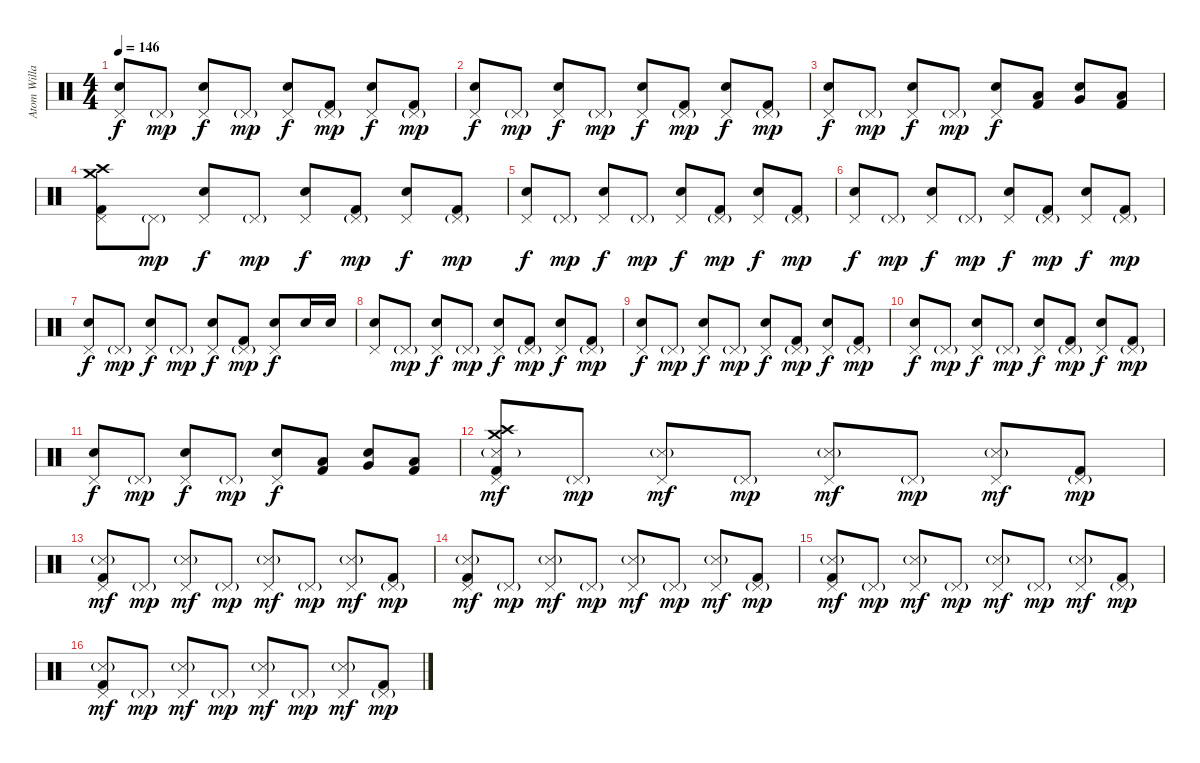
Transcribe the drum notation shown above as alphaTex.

\track ("Atom Willard" "Atom Willa") {instrument percussion}
\staff {score}
\articulation defaults
\ts (4 4)
\tempo 146
\clef neutral
\ks c
("Pedal Hi-Hat (hit)" "Electric Snare (hit)").8{dy f} "Pedal Hi-Hat (hit)"{g}.8{dy mp} ("Pedal Hi-Hat (hit)" "Electric Snare (hit)").8{dy f} "Pedal Hi-Hat (hit)"{g}.8{dy mp} ("Pedal Hi-Hat (hit)" "Electric Snare (hit)").8{dy f} ("Pedal Hi-Hat (hit)"{g} "Kick (hit) 2").8{dy mp} ("Pedal Hi-Hat (hit)" "Electric Snare (hit)").8{dy f} ("Pedal Hi-Hat (hit)"{g} "Kick (hit) 2").8{dy mp} |
("Pedal Hi-Hat (hit)" "Electric Snare (hit)").8{dy f} "Pedal Hi-Hat (hit)"{g}.8{dy mp} ("Pedal Hi-Hat (hit)" "Electric Snare (hit)").8{dy f} "Pedal Hi-Hat (hit)"{g}.8{dy mp} ("Pedal Hi-Hat (hit)" "Electric Snare (hit)").8{dy f} ("Pedal Hi-Hat (hit)"{g} "Kick (hit) 2").8{dy mp} ("Pedal Hi-Hat (hit)" "Electric Snare (hit)").8{dy f} ("Pedal Hi-Hat (hit)"{g} "Kick (hit) 2").8{dy mp} |
("Pedal Hi-Hat (hit)" "Electric Snare (hit)").8{dy f} "Pedal Hi-Hat (hit)"{g}.8{dy mp} ("Pedal Hi-Hat (hit)" "Electric Snare (hit)").8{dy f} "Pedal Hi-Hat (hit)"{g}.8{dy mp} ("Pedal Hi-Hat (hit)" "Electric Snare (hit)").8{dy f} ("Low Tom (hit)" "Kick (hit) 2").8 ("Electric Snare (hit)" "Very Low Tom (hit)").8 ("Low Tom (hit)" "Kick (hit) 2").8 |
("Crash high (hit)" "Crash medium (hit)" "Pedal Hi-Hat (hit)" "Kick (hit) 2").8 "Pedal Hi-Hat (hit)"{g}.8{dy mp} ("Pedal Hi-Hat (hit)" "Electric Snare (hit)").8{dy f} "Pedal Hi-Hat (hit)"{g}.8{dy mp} ("Pedal Hi-Hat (hit)" "Electric Snare (hit)").8{dy f} ("Pedal Hi-Hat (hit)"{g} "Kick (hit) 2").8{dy mp} ("Pedal Hi-Hat (hit)" "Electric Snare (hit)").8{dy f} ("Pedal Hi-Hat (hit)"{g} "Kick (hit) 2").8{dy mp} |
("Pedal Hi-Hat (hit)" "Electric Snare (hit)").8{dy f} "Pedal Hi-Hat (hit)"{g}.8{dy mp} ("Pedal Hi-Hat (hit)" "Electric Snare (hit)").8{dy f} "Pedal Hi-Hat (hit)"{g}.8{dy mp} ("Pedal Hi-Hat (hit)" "Electric Snare (hit)").8{dy f} ("Pedal Hi-Hat (hit)"{g} "Kick (hit) 2").8{dy mp} ("Pedal Hi-Hat (hit)" "Electric Snare (hit)").8{dy f} ("Pedal Hi-Hat (hit)"{g} "Kick (hit) 2").8{dy mp} |
("Pedal Hi-Hat (hit)" "Electric Snare (hit)").8{dy f} "Pedal Hi-Hat (hit)"{g}.8{dy mp} ("Pedal Hi-Hat (hit)" "Electric Snare (hit)").8{dy f} "Pedal Hi-Hat (hit)"{g}.8{dy mp} ("Pedal Hi-Hat (hit)" "Electric Snare (hit)").8{dy f} ("Pedal Hi-Hat (hit)"{g} "Kick (hit) 2").8{dy mp} ("Pedal Hi-Hat (hit)" "Electric Snare (hit)").8{dy f} ("Pedal Hi-Hat (hit)"{g} "Kick (hit) 2").8{dy mp} |
("Pedal Hi-Hat (hit)" "Electric Snare (hit)").8{dy f} "Pedal Hi-Hat (hit)"{g}.8{dy mp} ("Pedal Hi-Hat (hit)" "Electric Snare (hit)").8{dy f} "Pedal Hi-Hat (hit)"{g}.8{dy mp} ("Pedal Hi-Hat (hit)" "Electric Snare (hit)").8{dy f} ("Pedal Hi-Hat (hit)"{g} "Kick (hit) 2").8{dy mp} ("Pedal Hi-Hat (hit)" "Electric Snare (hit)").8{dy f} "Electric Snare (hit)".16 "Electric Snare (hit)".16 |
("Pedal Hi-Hat (hit)" "Electric Snare (hit)").8 "Pedal Hi-Hat (hit)"{g}.8{dy mp} ("Pedal Hi-Hat (hit)" "Electric Snare (hit)").8{dy f} "Pedal Hi-Hat (hit)"{g}.8{dy mp} ("Pedal Hi-Hat (hit)" "Electric Snare (hit)").8{dy f} ("Pedal Hi-Hat (hit)"{g} "Kick (hit) 2").8{dy mp} ("Pedal Hi-Hat (hit)" "Electric Snare (hit)").8{dy f} ("Pedal Hi-Hat (hit)"{g} "Kick (hit) 2").8{dy mp} |
("Pedal Hi-Hat (hit)" "Electric Snare (hit)").8{dy f} "Pedal Hi-Hat (hit)"{g}.8{dy mp} ("Pedal Hi-Hat (hit)" "Electric Snare (hit)").8{dy f} "Pedal Hi-Hat (hit)"{g}.8{dy mp} ("Pedal Hi-Hat (hit)" "Electric Snare (hit)").8{dy f} ("Pedal Hi-Hat (hit)"{g} "Kick (hit) 2").8{dy mp} ("Pedal Hi-Hat (hit)" "Electric Snare (hit)").8{dy f} ("Pedal Hi-Hat (hit)"{g} "Kick (hit) 2").8{dy mp} |
("Pedal Hi-Hat (hit)" "Electric Snare (hit)").8{dy f} "Pedal Hi-Hat (hit)"{g}.8{dy mp} ("Pedal Hi-Hat (hit)" "Electric Snare (hit)").8{dy f} "Pedal Hi-Hat (hit)"{g}.8{dy mp} ("Pedal Hi-Hat (hit)" "Electric Snare (hit)").8{dy f} ("Pedal Hi-Hat (hit)"{g} "Kick (hit) 2").8{dy mp} ("Pedal Hi-Hat (hit)" "Electric Snare (hit)").8{dy f} ("Pedal Hi-Hat (hit)"{g} "Kick (hit) 2").8{dy mp} |
("Pedal Hi-Hat (hit)" "Electric Snare (hit)").8{dy f} "Pedal Hi-Hat (hit)"{g}.8{dy mp} ("Pedal Hi-Hat (hit)" "Electric Snare (hit)").8{dy f} "Pedal Hi-Hat (hit)"{g}.8{dy mp} ("Pedal Hi-Hat (hit)" "Electric Snare (hit)").8{dy f} ("Low Tom (hit)" "Kick (hit) 2").8 ("Electric Snare (hit)" "Very Low Tom (hit)").8 ("Low Tom (hit)" "Kick (hit) 2").8 |
("Crash high (hit)" "Crash medium (hit)" "Pedal Hi-Hat (hit)" "Metronome (hit)"{g} "Kick (hit) 2").8{dy mf} "Pedal Hi-Hat (hit)"{g}.8{dy mp} ("Pedal Hi-Hat (hit)" "Metronome (hit)"{g}).8{dy mf} "Pedal Hi-Hat (hit)"{g}.8{dy mp} ("Pedal Hi-Hat (hit)" "Metronome (hit)"{g}).8{dy mf} "Pedal Hi-Hat (hit)"{g}.8{dy mp} ("Pedal Hi-Hat (hit)" "Metronome (hit)"{g}).8{dy mf} ("Pedal Hi-Hat (hit)"{g} "Kick (hit) 2").8{dy mp} |
("Pedal Hi-Hat (hit)" "Metronome (hit)"{g} "Kick (hit) 2").8{dy mf} "Pedal Hi-Hat (hit)"{g}.8{dy mp} ("Pedal Hi-Hat (hit)" "Metronome (hit)"{g}).8{dy mf} "Pedal Hi-Hat (hit)"{g}.8{dy mp} ("Pedal Hi-Hat (hit)" "Metronome (hit)"{g}).8{dy mf} "Pedal Hi-Hat (hit)"{g}.8{dy mp} ("Pedal Hi-Hat (hit)" "Metronome (hit)"{g}).8{dy mf} ("Pedal Hi-Hat (hit)"{g} "Kick (hit) 2").8{dy mp} |
("Pedal Hi-Hat (hit)" "Metronome (hit)"{g} "Kick (hit) 2").8{dy mf} "Pedal Hi-Hat (hit)"{g}.8{dy mp} ("Pedal Hi-Hat (hit)" "Metronome (hit)"{g}).8{dy mf} "Pedal Hi-Hat (hit)"{g}.8{dy mp} ("Pedal Hi-Hat (hit)" "Metronome (hit)"{g}).8{dy mf} "Pedal Hi-Hat (hit)"{g}.8{dy mp} ("Pedal Hi-Hat (hit)" "Metronome (hit)"{g}).8{dy mf} ("Pedal Hi-Hat (hit)"{g} "Kick (hit) 2").8{dy mp} |
("Pedal Hi-Hat (hit)" "Metronome (hit)"{g} "Kick (hit) 2").8{dy mf} "Pedal Hi-Hat (hit)"{g}.8{dy mp} ("Pedal Hi-Hat (hit)" "Metronome (hit)"{g}).8{dy mf} "Pedal Hi-Hat (hit)"{g}.8{dy mp} ("Pedal Hi-Hat (hit)" "Metronome (hit)"{g}).8{dy mf} "Pedal Hi-Hat (hit)"{g}.8{dy mp} ("Pedal Hi-Hat (hit)" "Metronome (hit)"{g}).8{dy mf} ("Pedal Hi-Hat (hit)"{g} "Kick (hit) 2").8{dy mp} |
("Pedal Hi-Hat (hit)" "Metronome (hit)"{g} "Kick (hit) 2").8{dy mf} "Pedal Hi-Hat (hit)"{g}.8{dy mp} ("Pedal Hi-Hat (hit)" "Metronome (hit)"{g}).8{dy mf} "Pedal Hi-Hat (hit)"{g}.8{dy mp} ("Pedal Hi-Hat (hit)" "Metronome (hit)"{g}).8{dy mf} "Pedal Hi-Hat (hit)"{g}.8{dy mp} ("Pedal Hi-Hat (hit)" "Metronome (hit)"{g}).8{dy mf} ("Pedal Hi-Hat (hit)"{g} "Kick (hit) 2").8{dy mp}
